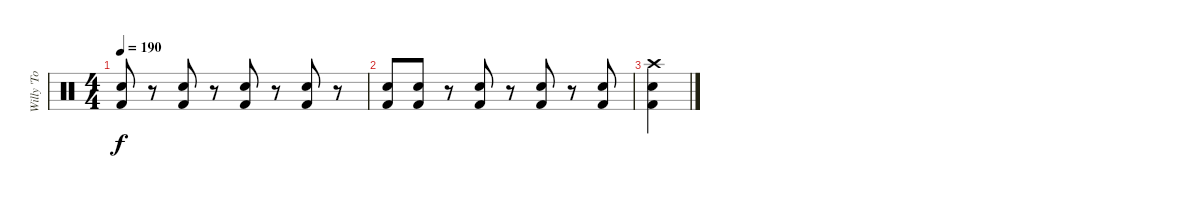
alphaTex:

\track ("Willy 'To Big' Hall" "Willy 'To ") {instrument percussion}
\staff {score}
\articulation defaults
\ts (4 4)
\tempo 190
\clef neutral
\ks c
("Kick (hit) 2" "Snare (hit) 2").8{dy f} r.8 ("Snare (hit) 2" "Kick (hit) 2").8 r.8 ("Snare (hit) 2" "Kick (hit) 2").8 r.8 ("Snare (hit) 2" "Kick (hit) 2").8 r.8 |
("Snare (hit) 2" "Kick (hit) 2").8 ("Kick (hit) 2" "Snare (hit) 2").8 r.8 ("Snare (hit) 2" "Kick (hit) 2").8 r.8 ("Snare (hit) 2" "Kick (hit) 2").8 r.8 ("Snare (hit) 2" "Kick (hit) 2").8 |
("Kick (hit) 2" "Snare (hit) 2" "Crash high (hit)").4
